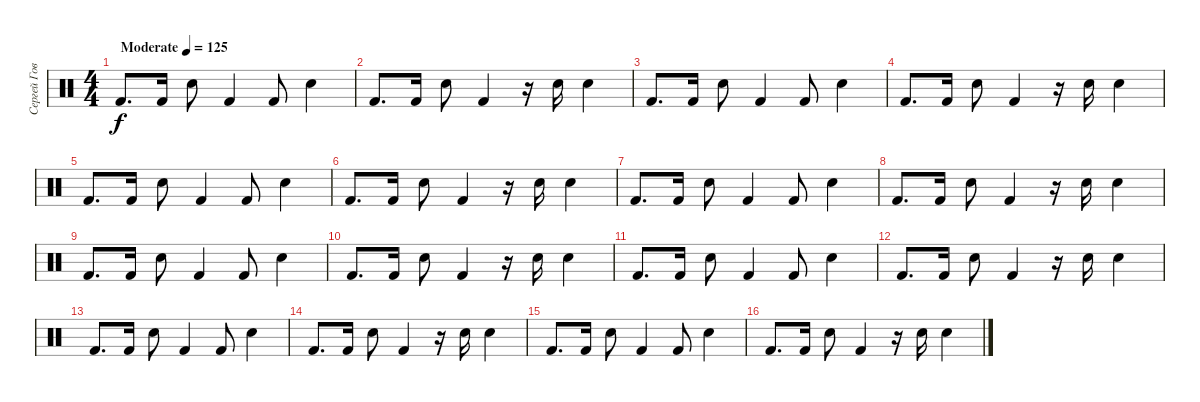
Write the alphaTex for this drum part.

\track ("Сергей Говорун" "Сергей Гов") {instrument percussion}
\staff {score}
\articulation defaults
\ts (4 4)
\tempo (125 "Moderate")
\clef neutral
\ks c "Kick (hit) 2".8{d dy f} "Kick (hit) 2".16 "Electric Snare (hit)".8 "Kick (hit) 2".4 "Kick (hit) 2".8 "Electric Snare (hit)".4
|
"Kick (hit) 2".8{d} "Kick (hit) 2".16 "Electric Snare (hit)".8 "Kick (hit) 2".4 r.16 "Electric Snare (hit)".16 "Electric Snare (hit)".4 |
"Kick (hit) 2".8{d} "Kick (hit) 2".16 "Electric Snare (hit)".8 "Kick (hit) 2".4 "Kick (hit) 2".8 "Electric Snare (hit)".4 |
"Kick (hit) 2".8{d} "Kick (hit) 2".16 "Electric Snare (hit)".8 "Kick (hit) 2".4 r.16 "Electric Snare (hit)".16 "Electric Snare (hit)".4 |
"Kick (hit) 2".8{d} "Kick (hit) 2".16 "Electric Snare (hit)".8 "Kick (hit) 2".4 "Kick (hit) 2".8 "Electric Snare (hit)".4 |
"Kick (hit) 2".8{d} "Kick (hit) 2".16 "Electric Snare (hit)".8 "Kick (hit) 2".4 r.16 "Electric Snare (hit)".16 "Electric Snare (hit)".4 |
"Kick (hit) 2".8{d} "Kick (hit) 2".16 "Electric Snare (hit)".8 "Kick (hit) 2".4 "Kick (hit) 2".8 "Electric Snare (hit)".4 |
"Kick (hit) 2".8{d} "Kick (hit) 2".16 "Electric Snare (hit)".8 "Kick (hit) 2".4 r.16 "Electric Snare (hit)".16 "Electric Snare (hit)".4 |
"Kick (hit) 2".8{d} "Kick (hit) 2".16 "Electric Snare (hit)".8 "Kick (hit) 2".4 "Kick (hit) 2".8 "Electric Snare (hit)".4 |
"Kick (hit) 2".8{d} "Kick (hit) 2".16 "Electric Snare (hit)".8 "Kick (hit) 2".4 r.16 "Electric Snare (hit)".16 "Electric Snare (hit)".4 |
"Kick (hit) 2".8{d} "Kick (hit) 2".16 "Electric Snare (hit)".8 "Kick (hit) 2".4 "Kick (hit) 2".8 "Electric Snare (hit)".4 |
"Kick (hit) 2".8{d} "Kick (hit) 2".16 "Electric Snare (hit)".8 "Kick (hit) 2".4 r.16 "Electric Snare (hit)".16 "Electric Snare (hit)".4 |
"Kick (hit) 2".8{d} "Kick (hit) 2".16 "Electric Snare (hit)".8 "Kick (hit) 2".4 "Kick (hit) 2".8 "Electric Snare (hit)".4 |
"Kick (hit) 2".8{d} "Kick (hit) 2".16 "Electric Snare (hit)".8 "Kick (hit) 2".4 r.16 "Electric Snare (hit)".16 "Electric Snare (hit)".4 |
"Kick (hit) 2".8{d} "Kick (hit) 2".16 "Electric Snare (hit)".8 "Kick (hit) 2".4 "Kick (hit) 2".8 "Electric Snare (hit)".4 |
"Kick (hit) 2".8{d} "Kick (hit) 2".16 "Electric Snare (hit)".8 "Kick (hit) 2".4 r.16 "Electric Snare (hit)".16 "Electric Snare (hit)".4
